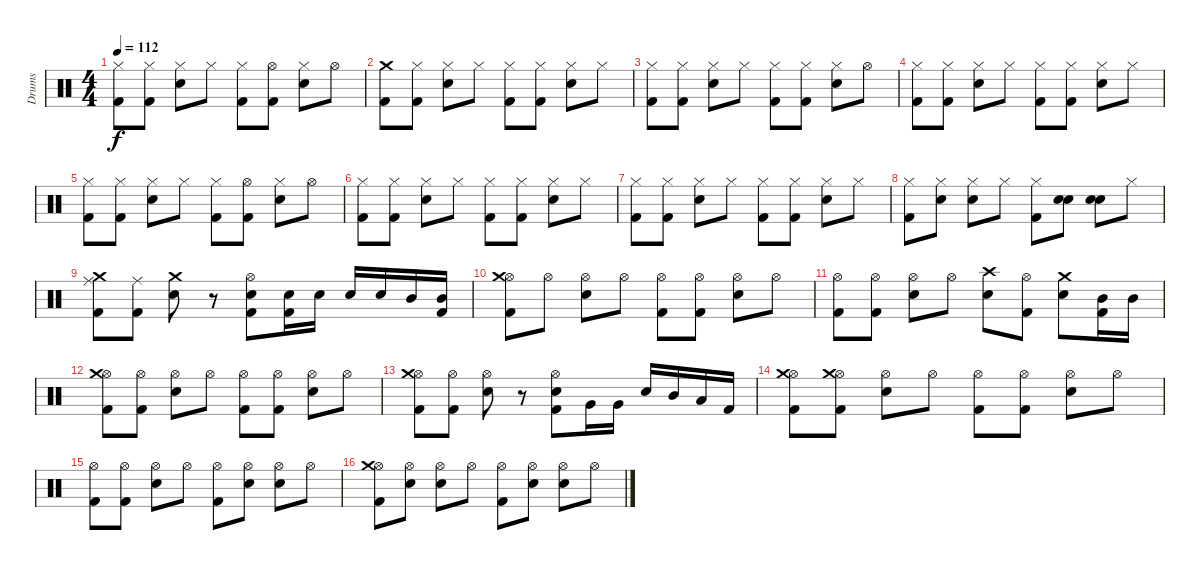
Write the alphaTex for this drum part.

\track ("Drums" "Drums") {instrument percussion}
\staff {score}
\articulation defaults
\ts (4 4)
\tempo 112
\clef neutral
\ks c
("Kick (hit) 2" "Hi-Hat (closed)").8{dy f} ("Kick (hit) 2" "Hi-Hat (closed)").8 ("Electric Snare (hit)" "Hi-Hat (closed)").8 "Hi-Hat (closed)".8 ("Kick (hit) 2" "Hi-Hat (closed)").8 ("Kick (hit) 2" "Hi-Hat (open)").8 ("Electric Snare (hit)" "Hi-Hat (closed)").8 "Hi-Hat (open)".8 |
("Kick (hit) 2" "Crash medium (hit)").8 ("Kick (hit) 2" "Hi-Hat (closed)").8 ("Electric Snare (hit)" "Hi-Hat (closed)").8 "Hi-Hat (closed)".8 ("Kick (hit) 2" "Hi-Hat (closed)").8 ("Kick (hit) 2" "Hi-Hat (closed)").8 ("Electric Snare (hit)" "Hi-Hat (closed)").8 "Hi-Hat (closed)".8 |
("Kick (hit) 2" "Hi-Hat (closed)").8 ("Kick (hit) 2" "Hi-Hat (closed)").8 ("Electric Snare (hit)" "Hi-Hat (closed)").8 "Hi-Hat (closed)".8 ("Kick (hit) 2" "Hi-Hat (closed)").8 ("Kick (hit) 2" "Hi-Hat (closed)").8 ("Electric Snare (hit)" "Hi-Hat (closed)").8 "Hi-Hat (open)".8 |
("Kick (hit) 2" "Hi-Hat (closed)").8 ("Kick (hit) 2" "Hi-Hat (closed)").8 ("Electric Snare (hit)" "Hi-Hat (closed)").8 "Hi-Hat (closed)".8 ("Kick (hit) 2" "Hi-Hat (closed)").8 ("Kick (hit) 2" "Hi-Hat (closed)").8 ("Electric Snare (hit)" "Hi-Hat (closed)").8 "Hi-Hat (closed)".8 |
("Kick (hit) 2" "Hi-Hat (closed)").8 ("Kick (hit) 2" "Hi-Hat (closed)").8 ("Electric Snare (hit)" "Hi-Hat (closed)").8 "Hi-Hat (closed)".8 ("Kick (hit) 2" "Hi-Hat (closed)").8 ("Kick (hit) 2" "Hi-Hat (open)").8 ("Electric Snare (hit)" "Hi-Hat (closed)").8 "Hi-Hat (open)".8 |
("Kick (hit) 2" "Hi-Hat (closed)").8 ("Kick (hit) 2" "Hi-Hat (closed)").8 ("Electric Snare (hit)" "Hi-Hat (closed)").8 "Hi-Hat (closed)".8 ("Kick (hit) 2" "Hi-Hat (closed)").8 ("Kick (hit) 2" "Hi-Hat (closed)").8 ("Electric Snare (hit)" "Hi-Hat (closed)").8 "Hi-Hat (closed)".8 |
("Kick (hit) 2" "Hi-Hat (closed)").8 ("Kick (hit) 2" "Hi-Hat (closed)").8 ("Electric Snare (hit)" "Hi-Hat (closed)").8 "Hi-Hat (closed)".8 ("Kick (hit) 2" "Hi-Hat (closed)").8 ("Kick (hit) 2" "Hi-Hat (closed)").8 ("Electric Snare (hit)" "Hi-Hat (closed)").8 "Hi-Hat (closed)".8 |
("Kick (hit) 2" "Hi-Hat (closed)").8 ("Electric Snare (hit)" "Hi-Hat (closed)").8 ("Electric Snare (hit)" "Hi-Hat (closed)").8 "Hi-Hat (closed)".8 ("Kick (hit) 2" "Hi-Hat (closed)").8 ("Electric Snare (hit)" "Electric Snare (hit)").8 ("Electric Snare (hit)" "Electric Snare (hit)").8 "Hi-Hat (closed)".8 |
("Kick (hit) 2" "Ride (middle)" "Crash medium (hit)").8 ("Kick (hit) 2" "Ride (middle)").8 ("Electric Snare (hit)" "Crash medium (hit)").8 r.8 ("Kick (hit) 2" "Electric Snare (hit)" "Hi-Hat (open)").8 ("Electric Snare (hit)" "Kick (hit) 2").16 "Electric Snare (hit)".16 "Electric Snare (hit)".16 "Electric Snare (hit)".16 "Mid Tom (hit)".16 ("Mid Tom (hit)" "Kick (hit) 2").16 |
("Kick (hit) 2" "Hi-Hat (open)" "Crash medium (hit)").8 "Hi-Hat (open)".8 ("Electric Snare (hit)" "Hi-Hat (open)").8 "Hi-Hat (open)".8 ("Kick (hit) 2" "Hi-Hat (open)").8 ("Kick (hit) 2" "Hi-Hat (open)").8 ("Electric Snare (hit)" "Hi-Hat (open)").8 "Hi-Hat (open)".8 |
("Kick (hit) 2" "Hi-Hat (open)").8 ("Kick (hit) 2" "Hi-Hat (open)").8 ("Electric Snare (hit)" "Hi-Hat (open)").8 "Hi-Hat (open)".8 ("Electric Snare (hit)" "Crash high (hit)").8 ("Kick (hit) 2" "Hi-Hat (open)").8 ("Electric Snare (hit)" "Crash medium (hit)").8 ("Mid Tom (hit)" "Kick (hit) 2").16 "Mid Tom (hit)".16 |
("Kick (hit) 2" "Hi-Hat (open)" "Crash medium (hit)").8 ("Kick (hit) 2" "Hi-Hat (open)").8 ("Electric Snare (hit)" "Hi-Hat (open)").8 "Hi-Hat (open)".8 ("Kick (hit) 2" "Hi-Hat (open)").8 ("Kick (hit) 2" "Hi-Hat (open)").8 ("Electric Snare (hit)" "Hi-Hat (open)").8 "Hi-Hat (open)".8 |
("Kick (hit) 2" "Hi-Hat (open)" "Crash medium (hit)").8 ("Kick (hit) 2" "Hi-Hat (open)").8 ("Electric Snare (hit)" "Hi-Hat (open)").8 r.8 ("Kick (hit) 2" "Electric Snare (hit)" "Hi-Hat (open)").8 "Very Low Tom (hit)".16 "Very Low Tom (hit)".16 "Electric Snare (hit)".16 "Mid Tom (hit)".16 "Low Tom (hit)".16 "Kick (hit) 2".16 |
("Kick (hit) 2" "Hi-Hat (open)" "Crash medium (hit)").8 ("Kick (hit) 2" "Hi-Hat (open)" "Crash medium (hit)").8 ("Electric Snare (hit)" "Hi-Hat (open)").8 "Hi-Hat (open)".8 ("Kick (hit) 2" "Hi-Hat (open)").8 ("Kick (hit) 2" "Hi-Hat (open)").8 ("Electric Snare (hit)" "Hi-Hat (open)").8 "Hi-Hat (open)".8 |
("Kick (hit) 2" "Hi-Hat (open)").8 ("Kick (hit) 2" "Hi-Hat (open)").8 ("Electric Snare (hit)" "Hi-Hat (open)").8 "Hi-Hat (open)".8 ("Kick (hit) 2" "Hi-Hat (open)").8 ("Electric Snare (hit)" "Hi-Hat (open)").8 ("Electric Snare (hit)" "Hi-Hat (open)").8 "Hi-Hat (open)".8 |
("Kick (hit) 2" "Hi-Hat (open)" "Crash medium (hit)").8 ("Electric Snare (hit)" "Hi-Hat (open)").8 ("Electric Snare (hit)" "Hi-Hat (open)").8 "Hi-Hat (open)".8 ("Kick (hit) 2" "Hi-Hat (open)").8 ("Electric Snare (hit)" "Hi-Hat (open)").8 ("Electric Snare (hit)" "Hi-Hat (open)").8 "Hi-Hat (open)".8
